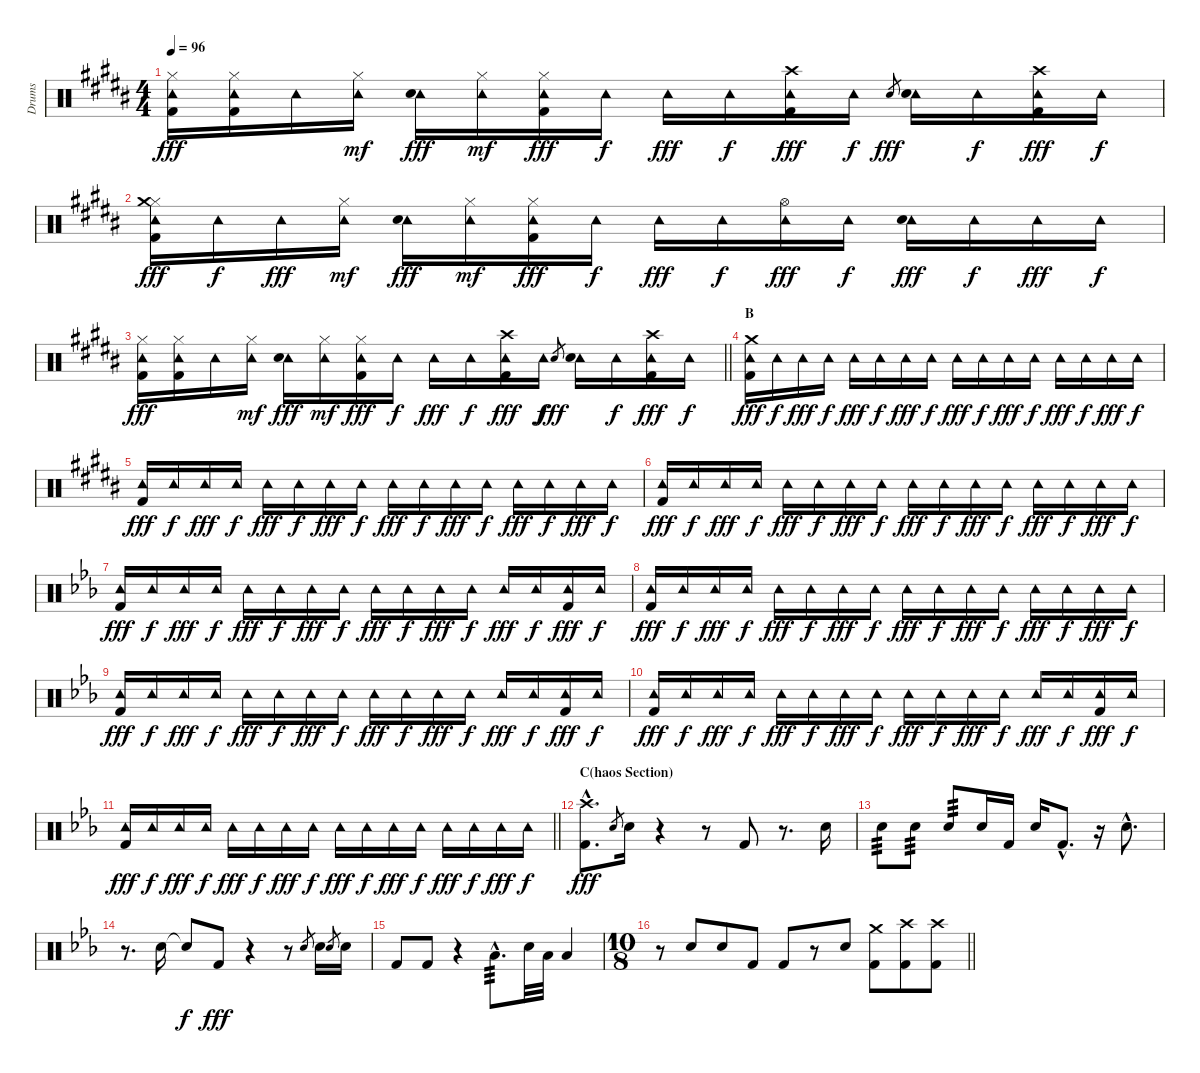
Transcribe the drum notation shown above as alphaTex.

\track ("Drums" "Drums") {instrument percussion}
\staff {score}
\articulation defaults
\ts (4 4)
\tempo 96
\clef neutral
\ks b
("Tambourine (hit)" "Hi-Hat (closed)" "Kick (hit) 2").16{dy fff} ("Tambourine (hit)" "Hi-Hat (closed)" "Kick (hit) 2").16 "Tambourine (hit)".16 ("Tambourine (hit)" "Hi-Hat (closed)").16{dy mf} ("Tambourine (hit)" "Snare (hit) 2").16{dy fff} ("Tambourine (hit)" "Hi-Hat (closed)").16{dy mf} ("Tambourine (hit)" "Hi-Hat (closed)" "Kick (hit) 2").16{dy fff} "Tambourine (hit)".16{dy f} "Tambourine (hit)".16{dy fff} "Tambourine (hit)".16{dy f} ("Tambourine (hit)" "Crash high (hit)" "Kick (hit) 2").16{dy fff} "Tambourine (hit)".16{dy f} "Snare (hit) 2".8{gr dy fff} ("Tambourine (hit)" "Snare (hit) 2").16 "Tambourine (hit)".16{dy f} ("Tambourine (hit)" "Crash high (hit)" "Kick (hit) 2").16{dy fff} "Tambourine (hit)".16{dy f} |
("Tambourine (hit)" "Hi-Hat (closed)" "Crash medium (hit)" "Kick (hit) 2").16{dy fff} "Tambourine (hit)".16{dy f} "Tambourine (hit)".16{dy fff} ("Tambourine (hit)" "Hi-Hat (closed)").16{dy mf} ("Tambourine (hit)" "Snare (hit) 2").16{dy fff} ("Tambourine (hit)" "Hi-Hat (closed)").16{dy mf} ("Tambourine (hit)" "Hi-Hat (closed)" "Kick (hit) 2").16{dy fff} "Tambourine (hit)".16{dy f} "Tambourine (hit)".16{dy fff} "Tambourine (hit)".16{dy f} ("Tambourine (hit)" "Hi-Hat (open)").16{dy fff} "Tambourine (hit)".16{dy f} ("Tambourine (hit)" "Snare (hit) 2").16{dy fff} "Tambourine (hit)".16{dy f} "Tambourine (hit)".16{dy fff} "Tambourine (hit)".16{dy f} |
\barLineRight lightlight
("Tambourine (hit)" "Hi-Hat (closed)" "Kick (hit) 2").16{dy fff} ("Tambourine (hit)" "Hi-Hat (closed)" "Kick (hit) 2").16 "Tambourine (hit)".16 ("Tambourine (hit)" "Hi-Hat (closed)").16{dy mf} ("Tambourine (hit)" "Snare (hit) 2").16{dy fff} ("Tambourine (hit)" "Hi-Hat (closed)").16{dy mf} ("Tambourine (hit)" "Hi-Hat (closed)" "Kick (hit) 2").16{dy fff} "Tambourine (hit)".16{dy f} "Tambourine (hit)".16{dy fff} "Tambourine (hit)".16{dy f} ("Tambourine (hit)" "Crash high (hit)" "Kick (hit) 2").16{dy fff} "Tambourine (hit)".16{dy f} "Snare (hit) 2".8{gr dy fff} ("Tambourine (hit)" "Snare (hit) 2").16 "Tambourine (hit)".16{dy f} ("Tambourine (hit)" "Crash high (hit)" "Kick (hit) 2").16{dy fff} "Tambourine (hit)".16{dy f} |
\section ("" "B")
("Tambourine (hit)" "Crash medium (hit)" "Kick (hit) 2").16{dy fff} "Tambourine (hit)".16{dy f} "Tambourine (hit)".16{dy fff} "Tambourine (hit)".16{dy f} "Tambourine (hit)".16{dy fff} "Tambourine (hit)".16{dy f} "Tambourine (hit)".16{dy fff} "Tambourine (hit)".16{dy f} "Tambourine (hit)".16{dy fff} "Tambourine (hit)".16{dy f} "Tambourine (hit)".16{dy fff} "Tambourine (hit)".16{dy f} "Tambourine (hit)".16{dy fff} "Tambourine (hit)".16{dy f} "Tambourine (hit)".16{dy fff} "Tambourine (hit)".16{dy f} |
("Tambourine (hit)" "Kick (hit) 2").16{dy fff} "Tambourine (hit)".16{dy f} "Tambourine (hit)".16{dy fff} "Tambourine (hit)".16{dy f} "Tambourine (hit)".16{dy fff} "Tambourine (hit)".16{dy f} "Tambourine (hit)".16{dy fff} "Tambourine (hit)".16{dy f} "Tambourine (hit)".16{dy fff} "Tambourine (hit)".16{dy f} "Tambourine (hit)".16{dy fff} "Tambourine (hit)".16{dy f} "Tambourine (hit)".16{dy fff} "Tambourine (hit)".16{dy f} "Tambourine (hit)".16{dy fff} "Tambourine (hit)".16{dy f} |
("Tambourine (hit)" "Kick (hit) 2").16{dy fff} "Tambourine (hit)".16{dy f} "Tambourine (hit)".16{dy fff} "Tambourine (hit)".16{dy f} "Tambourine (hit)".16{dy fff} "Tambourine (hit)".16{dy f} "Tambourine (hit)".16{dy fff} "Tambourine (hit)".16{dy f} "Tambourine (hit)".16{dy fff} "Tambourine (hit)".16{dy f} "Tambourine (hit)".16{dy fff} "Tambourine (hit)".16{dy f} "Tambourine (hit)".16{dy fff} "Tambourine (hit)".16{dy f} "Tambourine (hit)".16{dy fff} "Tambourine (hit)".16{dy f} |
\ks eb
("Tambourine (hit)" "Kick (hit) 2").16{dy fff} "Tambourine (hit)".16{dy f} "Tambourine (hit)".16{dy fff} "Tambourine (hit)".16{dy f} "Tambourine (hit)".16{dy fff} "Tambourine (hit)".16{dy f} "Tambourine (hit)".16{dy fff} "Tambourine (hit)".16{dy f} "Tambourine (hit)".16{dy fff} "Tambourine (hit)".16{dy f} "Tambourine (hit)".16{dy fff} "Tambourine (hit)".16{dy f} "Tambourine (hit)".16{dy fff} "Tambourine (hit)".16{dy f} ("Tambourine (hit)" "Kick (hit) 2").16{dy fff} "Tambourine (hit)".16{dy f} |
("Tambourine (hit)" "Kick (hit) 2").16{dy fff} "Tambourine (hit)".16{dy f} "Tambourine (hit)".16{dy fff} "Tambourine (hit)".16{dy f} "Tambourine (hit)".16{dy fff} "Tambourine (hit)".16{dy f} "Tambourine (hit)".16{dy fff} "Tambourine (hit)".16{dy f} "Tambourine (hit)".16{dy fff} "Tambourine (hit)".16{dy f} "Tambourine (hit)".16{dy fff} "Tambourine (hit)".16{dy f} "Tambourine (hit)".16{dy fff} "Tambourine (hit)".16{dy f} "Tambourine (hit)".16{dy fff} "Tambourine (hit)".16{dy f} |
("Tambourine (hit)" "Kick (hit) 2").16{dy fff} "Tambourine (hit)".16{dy f} "Tambourine (hit)".16{dy fff} "Tambourine (hit)".16{dy f} "Tambourine (hit)".16{dy fff} "Tambourine (hit)".16{dy f} "Tambourine (hit)".16{dy fff} "Tambourine (hit)".16{dy f} "Tambourine (hit)".16{dy fff} "Tambourine (hit)".16{dy f} "Tambourine (hit)".16{dy fff} "Tambourine (hit)".16{dy f} "Tambourine (hit)".16{dy fff} "Tambourine (hit)".16{dy f} ("Tambourine (hit)" "Kick (hit) 2").16{dy fff} "Tambourine (hit)".16{dy f} |
("Tambourine (hit)" "Kick (hit) 2").16{dy fff} "Tambourine (hit)".16{dy f} "Tambourine (hit)".16{dy fff} "Tambourine (hit)".16{dy f} "Tambourine (hit)".16{dy fff} "Tambourine (hit)".16{dy f} "Tambourine (hit)".16{dy fff} "Tambourine (hit)".16{dy f} "Tambourine (hit)".16{dy fff} "Tambourine (hit)".16{dy f} "Tambourine (hit)".16{dy fff} "Tambourine (hit)".16{dy f} "Tambourine (hit)".16{dy fff} "Tambourine (hit)".16{dy f} ("Tambourine (hit)" "Kick (hit) 2").16{dy fff} "Tambourine (hit)".16{dy f} |
\barLineRight lightlight
("Tambourine (hit)" "Kick (hit) 2").16{dy fff} "Tambourine (hit)".16{dy f} "Tambourine (hit)".16{dy fff} "Tambourine (hit)".16{dy f} "Tambourine (hit)".16{dy fff} "Tambourine (hit)".16{dy f} "Tambourine (hit)".16{dy fff} "Tambourine (hit)".16{dy f} "Tambourine (hit)".16{dy fff} "Tambourine (hit)".16{dy f} "Tambourine (hit)".16{dy fff} "Tambourine (hit)".16{dy f} "Tambourine (hit)".16{dy fff} "Tambourine (hit)".16{dy f} "Tambourine (hit)".16{dy fff} "Tambourine (hit)".16{dy f} |
\section ("" "C(haos Section)")
("Crash high (hit)"{hac} "Kick (hit) 2"{hac}).8{d dy fff} "Snare (hit) 2".8{gr} "Snare (hit) 2".16 r.4 r.8 "Kick (hit) 2".8 r.8{d} "Snare (hit) 2".16 |
"Snare (hit) 2".8{tp 3} "Snare (hit) 2".8{tp 3} "Snare (hit) 2".8{tp 3} "Snare (hit) 2".16 "Kick (hit) 2".16 "Snare (hit) 2".16 "Kick (hit) 2"{hac}.8{d} r.16 "Snare (hit) 2"{hac}.8{d} |
r.8{d} "Snare (hit) 2".16 "Snare (hit)"{t}.8{dy f} "Kick (hit) 2".8{dy fff} r.4 r.8 "Snare (hit) 2".8{gr} "Snare (hit) 2".16 "Snare (hit) 2".8{gr} "Snare (hit) 2".16 |
"Kick (hit) 2".8 "Kick (hit) 2".8 r.4 "Low Tom (hit)"{hac}.8{d tp 3} "Snare (hit) 2".32 "Low Tom (hit)".32 "Low Tom (hit)".4 |
\ts (10 8)
\barLineRight lightlight
r.8 "Snare (hit) 2".8 "Snare (hit) 2".8 "Kick (hit) 2".8 "Kick (hit) 2".8 r.8 "Snare (hit) 2".8 ("Crash medium (hit)" "Kick (hit) 2").8 ("Crash high (hit)" "Kick (hit) 2").8 ("Crash high (hit)" "Kick (hit) 2").8
